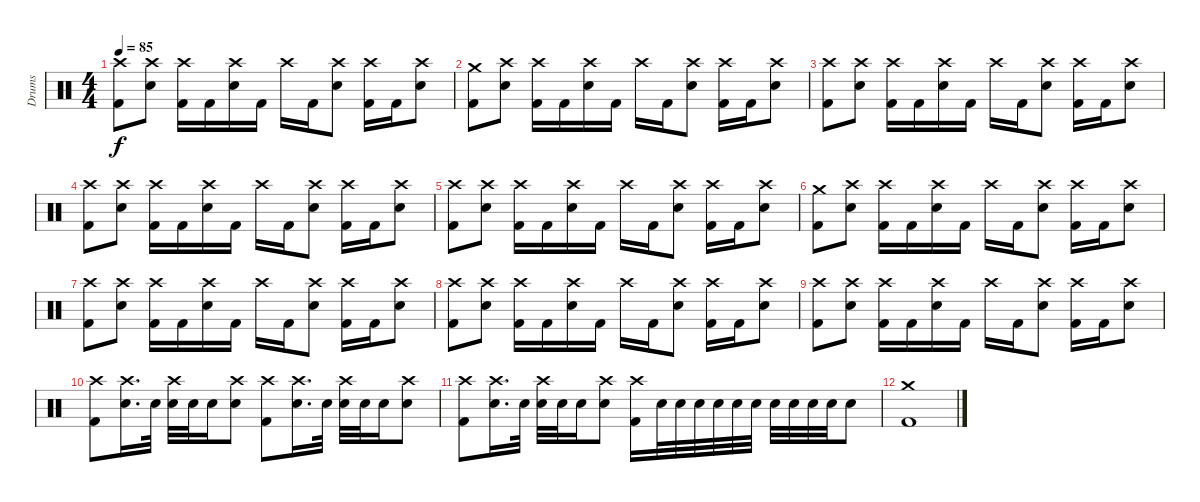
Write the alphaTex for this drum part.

\track ("Drums" "Drums") {instrument percussion}
\staff {score}
\articulation defaults
\ts (4 4)
\tempo 85
\clef neutral
\ks c
("Crash high (hit)" "Kick (hit) 2").8{dy f} ("Crash high (hit)" "Electric Snare (hit)").8 ("Crash high (hit)" "Kick (hit) 2").16 "Kick (hit) 2".16 ("Crash high (hit)" "Electric Snare (hit)").16 "Kick (hit) 2".16 "Crash high (hit)".16 "Kick (hit) 2".16 ("Crash high (hit)" "Electric Snare (hit)").8 ("Crash high (hit)" "Kick (hit) 2").16 "Kick (hit) 2".16 ("Crash high (hit)" "Electric Snare (hit)").8 |
("Crash medium (hit)" "Kick (hit) 2").8 ("Crash high (hit)" "Electric Snare (hit)").8 ("Crash high (hit)" "Kick (hit) 2").16 "Kick (hit) 2".16 ("Crash high (hit)" "Electric Snare (hit)").16 "Kick (hit) 2".16 "Crash high (hit)".16 "Kick (hit) 2".16 ("Crash high (hit)" "Electric Snare (hit)").8 ("Crash high (hit)" "Kick (hit) 2").16 "Kick (hit) 2".16 ("Crash high (hit)" "Electric Snare (hit)").8 |
("Crash high (hit)" "Kick (hit) 2").8 ("Crash high (hit)" "Electric Snare (hit)").8 ("Crash high (hit)" "Kick (hit) 2").16 "Kick (hit) 2".16 ("Crash high (hit)" "Electric Snare (hit)").16 "Kick (hit) 2".16 "Crash high (hit)".16 "Kick (hit) 2".16 ("Crash high (hit)" "Electric Snare (hit)").8 ("Crash high (hit)" "Kick (hit) 2").16 "Kick (hit) 2".16 ("Crash high (hit)" "Electric Snare (hit)").8 |
("Crash high (hit)" "Kick (hit) 2").8 ("Crash high (hit)" "Electric Snare (hit)").8 ("Crash high (hit)" "Kick (hit) 2").16 "Kick (hit) 2".16 ("Crash high (hit)" "Electric Snare (hit)").16 "Kick (hit) 2".16 "Crash high (hit)".16 "Kick (hit) 2".16 ("Crash high (hit)" "Electric Snare (hit)").8 ("Crash high (hit)" "Kick (hit) 2").16 "Kick (hit) 2".16 ("Crash high (hit)" "Electric Snare (hit)").8 |
("Crash high (hit)" "Kick (hit) 2").8 ("Crash high (hit)" "Electric Snare (hit)").8 ("Crash high (hit)" "Kick (hit) 2").16 "Kick (hit) 2".16 ("Crash high (hit)" "Electric Snare (hit)").16 "Kick (hit) 2".16 "Crash high (hit)".16 "Kick (hit) 2".16 ("Crash high (hit)" "Electric Snare (hit)").8 ("Crash high (hit)" "Kick (hit) 2").16 "Kick (hit) 2".16 ("Crash high (hit)" "Electric Snare (hit)").8 |
("Crash medium (hit)" "Kick (hit) 2").8 ("Crash high (hit)" "Electric Snare (hit)").8 ("Crash high (hit)" "Kick (hit) 2").16 "Kick (hit) 2".16 ("Crash high (hit)" "Electric Snare (hit)").16 "Kick (hit) 2".16 "Crash high (hit)".16 "Kick (hit) 2".16 ("Crash high (hit)" "Electric Snare (hit)").8 ("Crash high (hit)" "Kick (hit) 2").16 "Kick (hit) 2".16 ("Crash high (hit)" "Electric Snare (hit)").8 |
("Crash high (hit)" "Kick (hit) 2").8 ("Crash high (hit)" "Electric Snare (hit)").8 ("Crash high (hit)" "Kick (hit) 2").16 "Kick (hit) 2".16 ("Crash high (hit)" "Electric Snare (hit)").16 "Kick (hit) 2".16 "Crash high (hit)".16 "Kick (hit) 2".16 ("Crash high (hit)" "Electric Snare (hit)").8 ("Crash high (hit)" "Kick (hit) 2").16 "Kick (hit) 2".16 ("Crash high (hit)" "Electric Snare (hit)").8 |
("Crash high (hit)" "Kick (hit) 2").8 ("Crash high (hit)" "Electric Snare (hit)").8 ("Crash high (hit)" "Kick (hit) 2").16 "Kick (hit) 2".16 ("Crash high (hit)" "Electric Snare (hit)").16 "Kick (hit) 2".16 "Crash high (hit)".16 "Kick (hit) 2".16 ("Crash high (hit)" "Electric Snare (hit)").8 ("Crash high (hit)" "Kick (hit) 2").16 "Kick (hit) 2".16 ("Crash high (hit)" "Electric Snare (hit)").8 |
("Crash high (hit)" "Kick (hit) 2").8 ("Crash high (hit)" "Electric Snare (hit)").8 ("Crash high (hit)" "Kick (hit) 2").16 "Kick (hit) 2".16 ("Crash high (hit)" "Electric Snare (hit)").16 "Kick (hit) 2".16 "Crash high (hit)".16 "Kick (hit) 2".16 ("Crash high (hit)" "Electric Snare (hit)").8 ("Crash high (hit)" "Kick (hit) 2").16 "Kick (hit) 2".16 ("Crash high (hit)" "Electric Snare (hit)").8 |
("Crash high (hit)" "Kick (hit) 2").8 ("Crash high (hit)" "Electric Snare (hit)").16{d} "Electric Snare (hit)".32 ("Crash high (hit)" "Electric Snare (hit)").32 "Electric Snare (hit)".32 "Electric Snare (hit)".16 ("Crash high (hit)" "Electric Snare (hit)").8 ("Crash high (hit)" "Kick (hit) 2").8 ("Crash high (hit)" "Electric Snare (hit)").16{d} "Electric Snare (hit)".32 ("Crash high (hit)" "Electric Snare (hit)").32 "Electric Snare (hit)".32 "Electric Snare (hit)".16 ("Crash high (hit)" "Electric Snare (hit)").8 |
("Crash high (hit)" "Kick (hit) 2").8 ("Crash high (hit)" "Electric Snare (hit)").16{d} "Electric Snare (hit)".32 ("Crash high (hit)" "Electric Snare (hit)").32 "Electric Snare (hit)".32 "Electric Snare (hit)".16 ("Crash high (hit)" "Electric Snare (hit)").8 ("Crash high (hit)" "Kick (hit) 2").16 "Electric Snare (hit)".32 "Electric Snare (hit)".32 "Electric Snare (hit)".32 "Electric Snare (hit)".32 "Electric Snare (hit)".32 "Electric Snare (hit)".32 "Electric Snare (hit)".32 "Electric Snare (hit)".32 "Electric Snare (hit)".32 "Electric Snare (hit)".32 "Electric Snare (hit)".8 |
("Crash medium (hit)" "Kick (hit) 2").1
